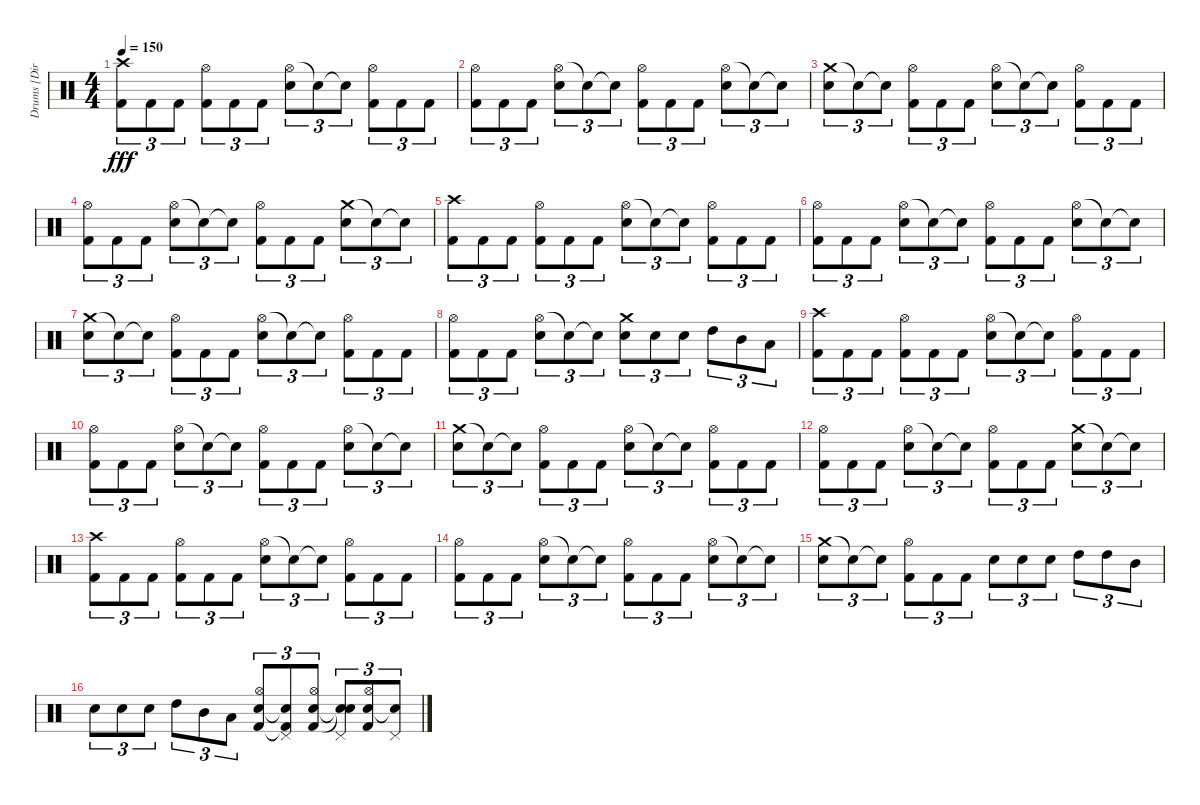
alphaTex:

\track ("Drums [Dirge Rep]" "Drums [Dir") {instrument percussion}
\staff {score}
\articulation defaults
\ts (4 4)
\tempo 150
\clef neutral
\ks c
("Crash high (hit)" "Kick (hit) 2").8{tu (3 2) dy fff} "Kick (hit) 2".8{tu (3 2)} "Kick (hit) 2".8{tu (3 2)} ("Hi-Hat (open)" "Kick (hit) 2").8{tu (3 2)} "Kick (hit) 2".8{tu (3 2)} "Kick (hit) 2".8{tu (3 2)} ("Hi-Hat (open)" "Electric Snare (hit)").8{tu (3 2)} "Snare (hit)"{t}.8{tu (3 2)} "Snare (hit)"{t}.8{tu (3 2)} ("Hi-Hat (open)" "Kick (hit) 2").8{tu (3 2)} "Kick (hit) 2".8{tu (3 2)} "Kick (hit) 2".8{tu (3 2)} |
("Hi-Hat (open)" "Kick (hit) 2").8{tu (3 2)} "Kick (hit) 2".8{tu (3 2)} "Kick (hit) 2".8{tu (3 2)} ("Hi-Hat (open)" "Electric Snare (hit)").8{tu (3 2)} "Snare (hit)"{t}.8{tu (3 2)} "Snare (hit)"{t}.8{tu (3 2)} ("Hi-Hat (open)" "Kick (hit) 2").8{tu (3 2)} "Kick (hit) 2".8{tu (3 2)} "Kick (hit) 2".8{tu (3 2)} ("Hi-Hat (open)" "Electric Snare (hit)").8{tu (3 2)} "Snare (hit)"{t}.8{tu (3 2)} "Snare (hit)"{t}.8{tu (3 2)} |
("Crash medium (hit)" "Electric Snare (hit)").8{tu (3 2)} "Snare (hit)"{t}.8{tu (3 2)} "Snare (hit)"{t}.8{tu (3 2)} ("Hi-Hat (open)" "Kick (hit) 2").8{tu (3 2)} "Kick (hit) 2".8{tu (3 2)} "Kick (hit) 2".8{tu (3 2)} ("Hi-Hat (open)" "Electric Snare (hit)").8{tu (3 2)} "Snare (hit)"{t}.8{tu (3 2)} "Snare (hit)"{t}.8{tu (3 2)} ("Hi-Hat (open)" "Kick (hit) 2").8{tu (3 2)} "Kick (hit) 2".8{tu (3 2)} "Kick (hit) 2".8{tu (3 2)} |
("Hi-Hat (open)" "Kick (hit) 2").8{tu (3 2)} "Kick (hit) 2".8{tu (3 2)} "Kick (hit) 2".8{tu (3 2)} ("Hi-Hat (open)" "Electric Snare (hit)").8{tu (3 2)} "Snare (hit)"{t}.8{tu (3 2)} "Snare (hit)"{t}.8{tu (3 2)} ("Hi-Hat (open)" "Kick (hit) 2").8{tu (3 2)} "Kick (hit) 2".8{tu (3 2)} "Kick (hit) 2".8{tu (3 2)} ("Crash medium (hit)" "Electric Snare (hit)").8{tu (3 2)} "Snare (hit)"{t}.8{tu (3 2)} "Snare (hit)"{t}.8{tu (3 2)} |
("Crash high (hit)" "Kick (hit) 2").8{tu (3 2)} "Kick (hit) 2".8{tu (3 2)} "Kick (hit) 2".8{tu (3 2)} ("Hi-Hat (open)" "Kick (hit) 2").8{tu (3 2)} "Kick (hit) 2".8{tu (3 2)} "Kick (hit) 2".8{tu (3 2)} ("Hi-Hat (open)" "Electric Snare (hit)").8{tu (3 2)} "Snare (hit)"{t}.8{tu (3 2)} "Snare (hit)"{t}.8{tu (3 2)} ("Hi-Hat (open)" "Kick (hit) 2").8{tu (3 2)} "Kick (hit) 2".8{tu (3 2)} "Kick (hit) 2".8{tu (3 2)} |
("Hi-Hat (open)" "Kick (hit) 2").8{tu (3 2)} "Kick (hit) 2".8{tu (3 2)} "Kick (hit) 2".8{tu (3 2)} ("Hi-Hat (open)" "Electric Snare (hit)").8{tu (3 2)} "Snare (hit)"{t}.8{tu (3 2)} "Snare (hit)"{t}.8{tu (3 2)} ("Hi-Hat (open)" "Kick (hit) 2").8{tu (3 2)} "Kick (hit) 2".8{tu (3 2)} "Kick (hit) 2".8{tu (3 2)} ("Hi-Hat (open)" "Electric Snare (hit)").8{tu (3 2)} "Snare (hit)"{t}.8{tu (3 2)} "Snare (hit)"{t}.8{tu (3 2)} |
("Crash medium (hit)" "Electric Snare (hit)").8{tu (3 2)} "Snare (hit)"{t}.8{tu (3 2)} "Snare (hit)"{t}.8{tu (3 2)} ("Hi-Hat (open)" "Kick (hit) 2").8{tu (3 2)} "Kick (hit) 2".8{tu (3 2)} "Kick (hit) 2".8{tu (3 2)} ("Hi-Hat (open)" "Electric Snare (hit)").8{tu (3 2)} "Snare (hit)"{t}.8{tu (3 2)} "Snare (hit)"{t}.8{tu (3 2)} ("Hi-Hat (open)" "Kick (hit) 2").8{tu (3 2)} "Kick (hit) 2".8{tu (3 2)} "Kick (hit) 2".8{tu (3 2)} |
("Hi-Hat (open)" "Kick (hit) 2").8{tu (3 2)} "Kick (hit) 2".8{tu (3 2)} "Kick (hit) 2".8{tu (3 2)} ("Hi-Hat (open)" "Electric Snare (hit)").8{tu (3 2)} "Snare (hit)"{t}.8{tu (3 2)} "Snare (hit)"{t}.8{tu (3 2)} ("Crash medium (hit)" "Electric Snare (hit)").8{tu (3 2)} "Electric Snare (hit)".8{tu (3 2)} "Electric Snare (hit)".8{tu (3 2)} "High Tom (hit)".8{tu (3 2)} "Mid Tom (hit)".8{tu (3 2)} "Low Tom (hit)".8{tu (3 2)} |
("Crash high (hit)" "Kick (hit) 2").8{tu (3 2)} "Kick (hit) 2".8{tu (3 2)} "Kick (hit) 2".8{tu (3 2)} ("Hi-Hat (open)" "Kick (hit) 2").8{tu (3 2)} "Kick (hit) 2".8{tu (3 2)} "Kick (hit) 2".8{tu (3 2)} ("Hi-Hat (open)" "Electric Snare (hit)").8{tu (3 2)} "Snare (hit)"{t}.8{tu (3 2)} "Snare (hit)"{t}.8{tu (3 2)} ("Hi-Hat (open)" "Kick (hit) 2").8{tu (3 2)} "Kick (hit) 2".8{tu (3 2)} "Kick (hit) 2".8{tu (3 2)} |
("Hi-Hat (open)" "Kick (hit) 2").8{tu (3 2)} "Kick (hit) 2".8{tu (3 2)} "Kick (hit) 2".8{tu (3 2)} ("Hi-Hat (open)" "Electric Snare (hit)").8{tu (3 2)} "Snare (hit)"{t}.8{tu (3 2)} "Snare (hit)"{t}.8{tu (3 2)} ("Hi-Hat (open)" "Kick (hit) 2").8{tu (3 2)} "Kick (hit) 2".8{tu (3 2)} "Kick (hit) 2".8{tu (3 2)} ("Hi-Hat (open)" "Electric Snare (hit)").8{tu (3 2)} "Snare (hit)"{t}.8{tu (3 2)} "Snare (hit)"{t}.8{tu (3 2)} |
("Crash medium (hit)" "Electric Snare (hit)").8{tu (3 2)} "Snare (hit)"{t}.8{tu (3 2)} "Snare (hit)"{t}.8{tu (3 2)} ("Hi-Hat (open)" "Kick (hit) 2").8{tu (3 2)} "Kick (hit) 2".8{tu (3 2)} "Kick (hit) 2".8{tu (3 2)} ("Hi-Hat (open)" "Electric Snare (hit)").8{tu (3 2)} "Snare (hit)"{t}.8{tu (3 2)} "Snare (hit)"{t}.8{tu (3 2)} ("Hi-Hat (open)" "Kick (hit) 2").8{tu (3 2)} "Kick (hit) 2".8{tu (3 2)} "Kick (hit) 2".8{tu (3 2)} |
("Hi-Hat (open)" "Kick (hit) 2").8{tu (3 2)} "Kick (hit) 2".8{tu (3 2)} "Kick (hit) 2".8{tu (3 2)} ("Hi-Hat (open)" "Electric Snare (hit)").8{tu (3 2)} "Snare (hit)"{t}.8{tu (3 2)} "Snare (hit)"{t}.8{tu (3 2)} ("Hi-Hat (open)" "Kick (hit) 2").8{tu (3 2)} "Kick (hit) 2".8{tu (3 2)} "Kick (hit) 2".8{tu (3 2)} ("Crash medium (hit)" "Electric Snare (hit)").8{tu (3 2)} "Snare (hit)"{t}.8{tu (3 2)} "Snare (hit)"{t}.8{tu (3 2)} |
("Crash high (hit)" "Kick (hit) 2").8{tu (3 2)} "Kick (hit) 2".8{tu (3 2)} "Kick (hit) 2".8{tu (3 2)} ("Hi-Hat (open)" "Kick (hit) 2").8{tu (3 2)} "Kick (hit) 2".8{tu (3 2)} "Kick (hit) 2".8{tu (3 2)} ("Hi-Hat (open)" "Electric Snare (hit)").8{tu (3 2)} "Snare (hit)"{t}.8{tu (3 2)} "Snare (hit)"{t}.8{tu (3 2)} ("Hi-Hat (open)" "Kick (hit) 2").8{tu (3 2)} "Kick (hit) 2".8{tu (3 2)} "Kick (hit) 2".8{tu (3 2)} |
("Hi-Hat (open)" "Kick (hit) 2").8{tu (3 2)} "Kick (hit) 2".8{tu (3 2)} "Kick (hit) 2".8{tu (3 2)} ("Hi-Hat (open)" "Electric Snare (hit)").8{tu (3 2)} "Snare (hit)"{t}.8{tu (3 2)} "Snare (hit)"{t}.8{tu (3 2)} ("Hi-Hat (open)" "Kick (hit) 2").8{tu (3 2)} "Kick (hit) 2".8{tu (3 2)} "Kick (hit) 2".8{tu (3 2)} ("Hi-Hat (open)" "Electric Snare (hit)").8{tu (3 2)} "Snare (hit)"{t}.8{tu (3 2)} "Snare (hit)"{t}.8{tu (3 2)} |
("Crash medium (hit)" "Electric Snare (hit)").8{tu (3 2)} "Snare (hit)"{t}.8{tu (3 2)} "Snare (hit)"{t}.8{tu (3 2)} ("Hi-Hat (open)" "Kick (hit) 2").8{tu (3 2)} "Kick (hit) 2".8{tu (3 2)} "Kick (hit) 2".8{tu (3 2)} "Electric Snare (hit)".8{tu (3 2)} "Electric Snare (hit)".8{tu (3 2)} "Electric Snare (hit)".8{tu (3 2)} "High Tom (hit)".8{tu (3 2)} "High Tom (hit)".8{tu (3 2)} "Mid Tom (hit)".8{tu (3 2)} |
"Electric Snare (hit)".8{tu (3 2)} "Electric Snare (hit)".8{tu (3 2)} "Electric Snare (hit)".8{tu (3 2)} "High Tom (hit)".8{tu (3 2)} "Mid Tom (hit)".8{tu (3 2)} "Low Tom (hit)".8{tu (3 2)} ("Hi-Hat (open)" "Electric Snare (hit)" "Kick (hit) 2").8{tu (3 2)} ("Pedal Hi-Hat (hit)" "Snare (hit)"{t} "Kick (hit) 2"{t}).8{tu (3 2)} ("Hi-Hat (open)" "Electric Snare (hit)" "Kick (hit) 2").8{tu (3 2)} ("Pedal Hi-Hat (hit)" "Snare (hit)"{t} "Snare (hit)"{t}).8{tu (3 2)} ("Hi-Hat (open)" "Electric Snare (hit)" "Kick (hit) 2").8{tu (3 2)} ("Pedal Hi-Hat (hit)" "Snare (hit)"{t}).8{tu (3 2)}
